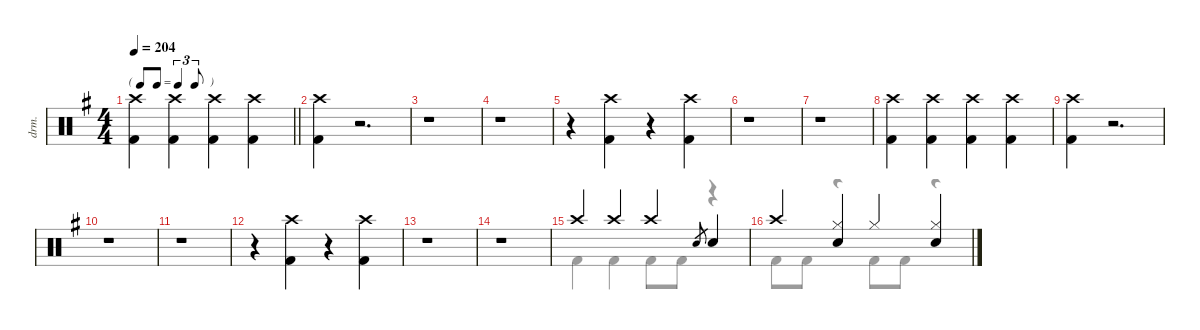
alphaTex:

\defaultSystemsLayout 4
\hideDynamics
\bracketExtendMode nobrackets
\otherSystemsTrackNameOrientation horizontal
\track ("Lars Ulrich" "drm.") {defaultSystemsLayout 8 instrument percussion}
\staff {score}
\articulation defaults
\voice
\ts (4 4)
\beaming (8 2 2 2 2)
\tf triplet8th
\tempo 204
\clef neutral
\barLineRight lightlight
\ks eminor
("Crash high (hit)"{acc forcenatural} "Kick (hit) 2"{acc forcenatural}).4{dy f beam Down} ("Crash high (hit)"{acc forcenatural} "Kick (hit) 2"{acc forcenatural}).4{beam Down} ("Crash high (hit)"{acc forcenatural} "Kick (hit) 2"{acc forcenatural}).4{beam Down} ("Crash high (hit)"{acc forcenatural} "Kick (hit) 2"{acc forcenatural}).4{beam Down} |
("Crash high (hit)"{acc forcenatural} "Kick (hit) 2"{acc forcenatural}).4{beam Down} r.2{d beam Down} |
r.1{beam Down} |
r.1{beam Down} |
r.4{beam Down} ("Crash high (hit)"{acc forcenatural} "Kick (hit) 2"{acc forcenatural}).4{beam Down} r.4{beam Down} ("Crash high (hit)"{acc forcenatural} "Kick (hit) 2"{acc forcenatural}).4{beam Down} |
r.1{beam Down} |
r.1{beam Down} |
("Crash high (hit)"{acc forcenatural} "Kick (hit) 2"{acc forcenatural}).4{beam Down} ("Crash high (hit)"{acc forcenatural} "Kick (hit) 2"{acc forcenatural}).4{beam Down} ("Crash high (hit)"{acc forcenatural} "Kick (hit) 2"{acc forcenatural}).4{beam Down} ("Crash high (hit)"{acc forcenatural} "Kick (hit) 2"{acc forcenatural}).4{beam Down} |
("Crash high (hit)"{acc forcenatural} "Kick (hit) 2"{acc forcenatural}).4{beam Down} r.2{d beam Down} |
r.1{beam Down} |
r.1{beam Down} |
r.4{beam Down} ("Crash high (hit)"{acc forcenatural} "Kick (hit) 2"{acc forcenatural}).4{beam Down} r.4{beam Down} ("Crash high (hit)"{acc forcenatural} "Kick (hit) 2"{acc forcenatural}).4{beam Down} |
r.1{beam Down} |
r.1{beam Down} |
"Crash high (hit)"{acc forcenatural}.4{beam Up} "Crash high (hit)"{acc forcenatural}.4{beam Up} "Crash high (hit)"{acc forcenatural}.4{beam Up} "Snare (hit) 2"{acc forcenatural}.8{gr dy mf beam Up} "Snare (hit) 2"{acc forcenatural}.4{dy f beam Up} |
"Crash high (hit)"{acc forcenatural}.4{beam Up} ("Hi-Hat (closed)"{acc forcenatural} "Snare (hit) 2"{acc forcenatural}).4{beam Up} "Hi-Hat (closed)"{acc forcenatural}.4{beam Up} ("Hi-Hat (closed)"{acc forcenatural} "Snare (hit) 2"{acc forcenatural}).4{beam Up}
\voice
\clef neutral
\ottava regular
\simile none
\barLineRight lightlight
\ks eminor
|
|
|
|
|
|
|
|
|
|
|
|
|
|
"Kick (hit) 2"{acc forcenatural}.4{beam Down} "Kick (hit) 2"{acc forcenatural}.4{beam Down} "Kick (hit) 2"{acc forcenatural}.8{beam Down} "Kick (hit) 2"{acc forcenatural}.8{beam Down} r.4{beam Down} |
"Kick (hit) 2"{acc forcenatural}.8{beam Down} "Kick (hit) 2"{acc forcenatural}.8{beam Down} r.4{beam Down} "Kick (hit) 2"{acc forcenatural}.8{beam Down} "Kick (hit) 2"{acc forcenatural}.8{beam Down} r.4{beam Down}
